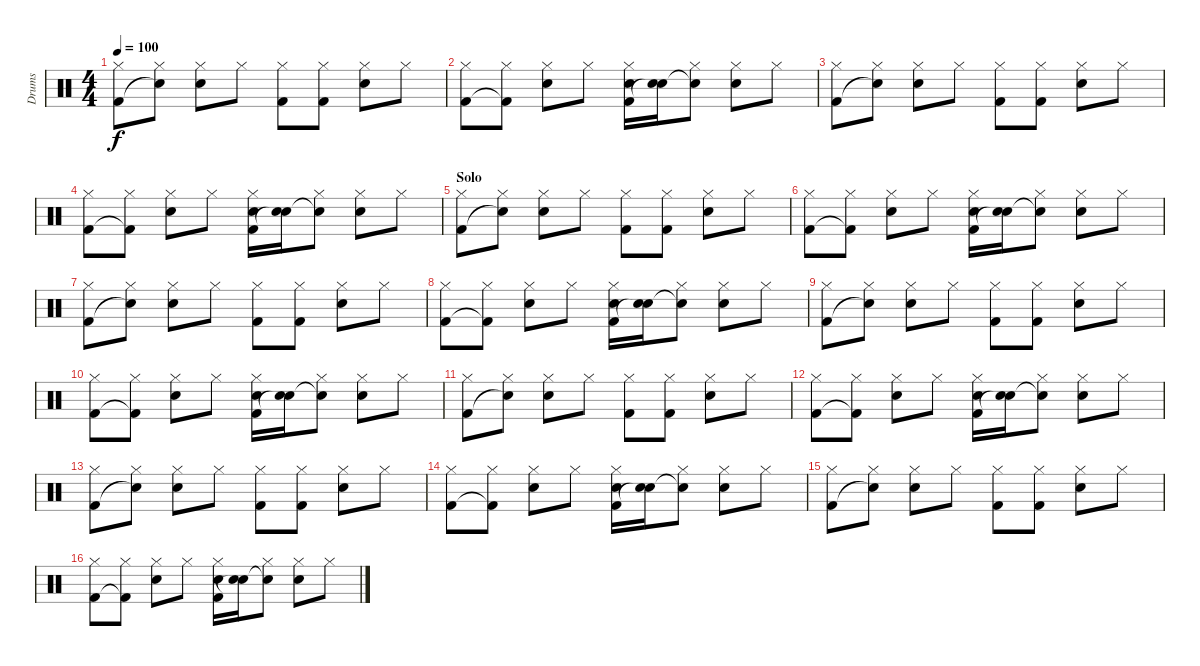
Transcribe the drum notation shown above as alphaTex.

\track ("Drums" "Drums") {instrument percussion}
\staff {score}
\articulation defaults
\ts (4 4)
\tempo 100
\clef neutral
\ks c
("Kick (hit) 2" "Hi-Hat (closed)").8{dy f} ("Snare (hit)"{t} "Hi-Hat (closed)").8 ("Snare (hit) 2" "Hi-Hat (closed)").8 "Hi-Hat (closed)".8 ("Kick (hit) 2" "Hi-Hat (closed)").8 ("Kick (hit) 2" "Hi-Hat (closed)").8 ("Snare (hit) 2" "Hi-Hat (closed)").8 "Hi-Hat (closed)".8 |
("Kick (hit) 2" "Hi-Hat (closed)").8 ("Kick (hit) 2"{t} "Hi-Hat (closed)").8 ("Snare (hit) 2" "Hi-Hat (closed)").8 "Hi-Hat (closed)".8 ("Kick (hit) 2" "Snare (hit) 2" "Hi-Hat (closed)").16 ("Snare (hit)"{t} "Snare (hit) 2").16 ("Snare (hit)"{t} "Hi-Hat (closed)").8 ("Snare (hit) 2" "Hi-Hat (closed)").8 "Hi-Hat (closed)".8 |
("Kick (hit) 2" "Hi-Hat (closed)").8 ("Snare (hit)"{t} "Hi-Hat (closed)").8 ("Snare (hit) 2" "Hi-Hat (closed)").8 "Hi-Hat (closed)".8 ("Kick (hit) 2" "Hi-Hat (closed)").8 ("Kick (hit) 2" "Hi-Hat (closed)").8 ("Snare (hit) 2" "Hi-Hat (closed)").8 "Hi-Hat (closed)".8 |
("Kick (hit) 2" "Hi-Hat (closed)").8 ("Kick (hit) 2"{t} "Hi-Hat (closed)").8 ("Snare (hit) 2" "Hi-Hat (closed)").8 "Hi-Hat (closed)".8 ("Kick (hit) 2" "Snare (hit) 2" "Hi-Hat (closed)").16 ("Snare (hit)"{t} "Snare (hit) 2").16 ("Snare (hit)"{t} "Hi-Hat (closed)").8 ("Snare (hit) 2" "Hi-Hat (closed)").8 "Hi-Hat (closed)".8 |
\section ("" "Solo")
("Kick (hit) 2" "Hi-Hat (closed)").8 ("Snare (hit)"{t} "Hi-Hat (closed)").8 ("Snare (hit) 2" "Hi-Hat (closed)").8 "Hi-Hat (closed)".8 ("Kick (hit) 2" "Hi-Hat (closed)").8 ("Kick (hit) 2" "Hi-Hat (closed)").8 ("Snare (hit) 2" "Hi-Hat (closed)").8 "Hi-Hat (closed)".8 |
("Kick (hit) 2" "Hi-Hat (closed)").8 ("Kick (hit) 2"{t} "Hi-Hat (closed)").8 ("Snare (hit) 2" "Hi-Hat (closed)").8 "Hi-Hat (closed)".8 ("Kick (hit) 2" "Snare (hit) 2" "Hi-Hat (closed)").16 ("Snare (hit)"{t} "Snare (hit) 2").16 ("Snare (hit)"{t} "Hi-Hat (closed)").8 ("Snare (hit) 2" "Hi-Hat (closed)").8 "Hi-Hat (closed)".8 |
("Kick (hit) 2" "Hi-Hat (closed)").8 ("Snare (hit)"{t} "Hi-Hat (closed)").8 ("Snare (hit) 2" "Hi-Hat (closed)").8 "Hi-Hat (closed)".8 ("Kick (hit) 2" "Hi-Hat (closed)").8 ("Kick (hit) 2" "Hi-Hat (closed)").8 ("Snare (hit) 2" "Hi-Hat (closed)").8 "Hi-Hat (closed)".8 |
("Kick (hit) 2" "Hi-Hat (closed)").8 ("Kick (hit) 2"{t} "Hi-Hat (closed)").8 ("Snare (hit) 2" "Hi-Hat (closed)").8 "Hi-Hat (closed)".8 ("Kick (hit) 2" "Snare (hit) 2" "Hi-Hat (closed)").16 ("Snare (hit)"{t} "Snare (hit) 2").16 ("Snare (hit)"{t} "Hi-Hat (closed)").8 ("Snare (hit) 2" "Hi-Hat (closed)").8 "Hi-Hat (closed)".8 |
("Kick (hit) 2" "Hi-Hat (closed)").8 ("Snare (hit)"{t} "Hi-Hat (closed)").8 ("Snare (hit) 2" "Hi-Hat (closed)").8 "Hi-Hat (closed)".8 ("Kick (hit) 2" "Hi-Hat (closed)").8 ("Kick (hit) 2" "Hi-Hat (closed)").8 ("Snare (hit) 2" "Hi-Hat (closed)").8 "Hi-Hat (closed)".8 |
("Kick (hit) 2" "Hi-Hat (closed)").8 ("Kick (hit) 2"{t} "Hi-Hat (closed)").8 ("Snare (hit) 2" "Hi-Hat (closed)").8 "Hi-Hat (closed)".8 ("Kick (hit) 2" "Snare (hit) 2" "Hi-Hat (closed)").16 ("Snare (hit)"{t} "Snare (hit) 2").16 ("Snare (hit)"{t} "Hi-Hat (closed)").8 ("Snare (hit) 2" "Hi-Hat (closed)").8 "Hi-Hat (closed)".8 |
("Kick (hit) 2" "Hi-Hat (closed)").8 ("Snare (hit)"{t} "Hi-Hat (closed)").8 ("Snare (hit) 2" "Hi-Hat (closed)").8 "Hi-Hat (closed)".8 ("Kick (hit) 2" "Hi-Hat (closed)").8 ("Kick (hit) 2" "Hi-Hat (closed)").8 ("Snare (hit) 2" "Hi-Hat (closed)").8 "Hi-Hat (closed)".8 |
("Kick (hit) 2" "Hi-Hat (closed)").8 ("Kick (hit) 2"{t} "Hi-Hat (closed)").8 ("Snare (hit) 2" "Hi-Hat (closed)").8 "Hi-Hat (closed)".8 ("Kick (hit) 2" "Snare (hit) 2" "Hi-Hat (closed)").16 ("Snare (hit)"{t} "Snare (hit) 2").16 ("Snare (hit)"{t} "Hi-Hat (closed)").8 ("Snare (hit) 2" "Hi-Hat (closed)").8 "Hi-Hat (closed)".8 |
("Kick (hit) 2" "Hi-Hat (closed)").8 ("Snare (hit)"{t} "Hi-Hat (closed)").8 ("Snare (hit) 2" "Hi-Hat (closed)").8 "Hi-Hat (closed)".8 ("Kick (hit) 2" "Hi-Hat (closed)").8 ("Kick (hit) 2" "Hi-Hat (closed)").8 ("Snare (hit) 2" "Hi-Hat (closed)").8 "Hi-Hat (closed)".8 |
("Kick (hit) 2" "Hi-Hat (closed)").8 ("Kick (hit) 2"{t} "Hi-Hat (closed)").8 ("Snare (hit) 2" "Hi-Hat (closed)").8 "Hi-Hat (closed)".8 ("Kick (hit) 2" "Snare (hit) 2" "Hi-Hat (closed)").16 ("Snare (hit)"{t} "Snare (hit) 2").16 ("Snare (hit)"{t} "Hi-Hat (closed)").8 ("Snare (hit) 2" "Hi-Hat (closed)").8 "Hi-Hat (closed)".8 |
("Kick (hit) 2" "Hi-Hat (closed)").8 ("Snare (hit)"{t} "Hi-Hat (closed)").8 ("Snare (hit) 2" "Hi-Hat (closed)").8 "Hi-Hat (closed)".8 ("Kick (hit) 2" "Hi-Hat (closed)").8 ("Kick (hit) 2" "Hi-Hat (closed)").8 ("Snare (hit) 2" "Hi-Hat (closed)").8 "Hi-Hat (closed)".8 |
("Kick (hit) 2" "Hi-Hat (closed)").8 ("Kick (hit) 2"{t} "Hi-Hat (closed)").8 ("Snare (hit) 2" "Hi-Hat (closed)").8 "Hi-Hat (closed)".8 ("Kick (hit) 2" "Snare (hit) 2" "Hi-Hat (closed)").16 ("Snare (hit)"{t} "Snare (hit) 2").16 ("Snare (hit)"{t} "Hi-Hat (closed)").8 ("Snare (hit) 2" "Hi-Hat (closed)").8 "Hi-Hat (closed)".8
